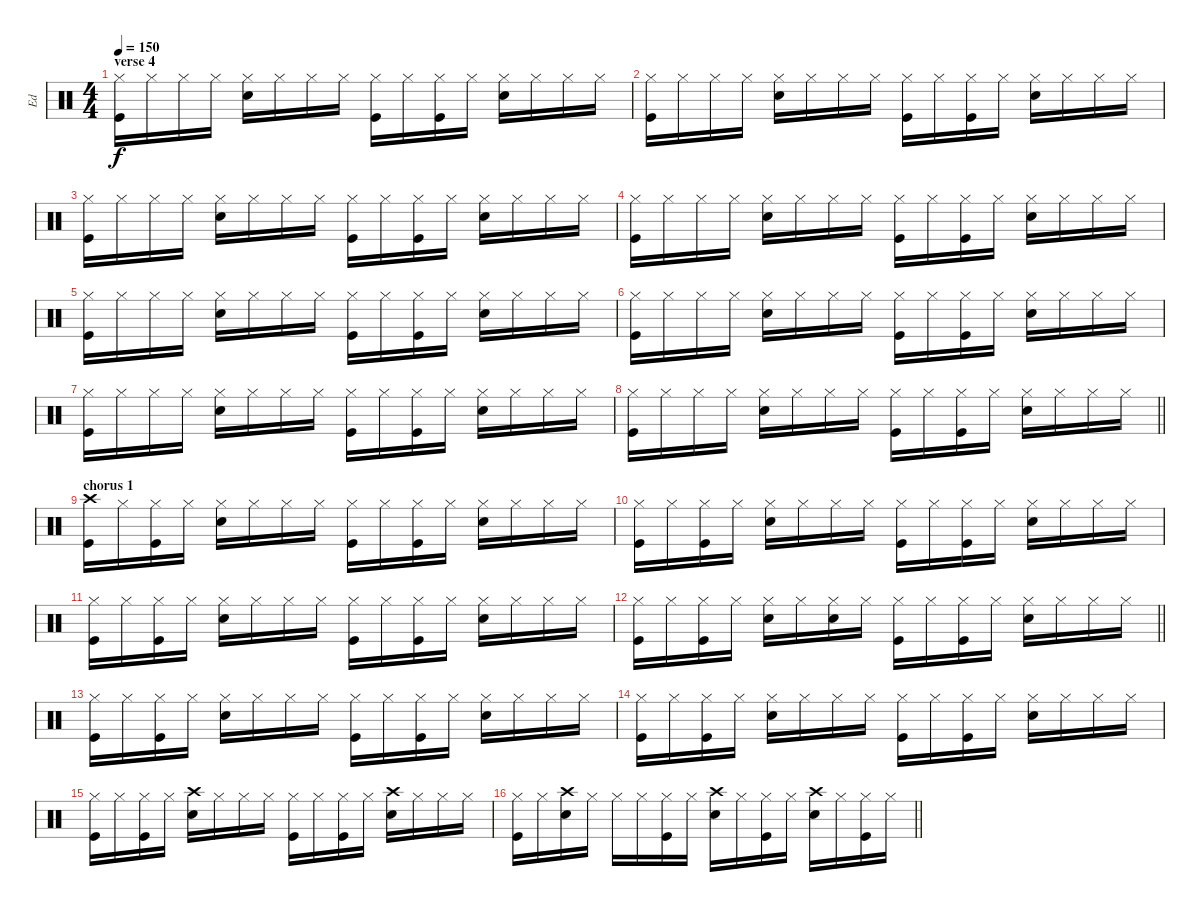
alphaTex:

\track ("Ed" "Ed") {instrument percussion}
\staff {score}
\articulation defaults
\ts (4 4)
\section ("" "verse 4")
\tempo 150
\clef neutral
\ks c
("Hi-Hat (closed)" "Kick (hit)").16{dy f} "Hi-Hat (closed)".16 "Hi-Hat (closed)".16 "Hi-Hat (closed)".16 ("Hi-Hat (closed)" "Electric Snare (hit)").16 "Hi-Hat (closed)".16 "Hi-Hat (closed)".16 "Hi-Hat (closed)".16 ("Hi-Hat (closed)" "Kick (hit)").16 "Hi-Hat (closed)".16 ("Hi-Hat (closed)" "Kick (hit)").16 "Hi-Hat (closed)".16 ("Hi-Hat (closed)" "Electric Snare (hit)").16 "Hi-Hat (closed)".16 "Hi-Hat (closed)".16 "Hi-Hat (closed)".16 |
("Hi-Hat (closed)" "Kick (hit)").16 "Hi-Hat (closed)".16 "Hi-Hat (closed)".16 "Hi-Hat (closed)".16 ("Hi-Hat (closed)" "Electric Snare (hit)").16 "Hi-Hat (closed)".16 "Hi-Hat (closed)".16 "Hi-Hat (closed)".16 ("Hi-Hat (closed)" "Kick (hit)").16 "Hi-Hat (closed)".16 ("Hi-Hat (closed)" "Kick (hit)").16 "Hi-Hat (closed)".16 ("Hi-Hat (closed)" "Electric Snare (hit)").16 "Hi-Hat (closed)".16 "Hi-Hat (closed)".16 "Hi-Hat (closed)".16 |
("Hi-Hat (closed)" "Kick (hit)").16 "Hi-Hat (closed)".16 "Hi-Hat (closed)".16 "Hi-Hat (closed)".16 ("Hi-Hat (closed)" "Electric Snare (hit)").16 "Hi-Hat (closed)".16 "Hi-Hat (closed)".16 "Hi-Hat (closed)".16 ("Hi-Hat (closed)" "Kick (hit)").16 "Hi-Hat (closed)".16 ("Hi-Hat (closed)" "Kick (hit)").16 "Hi-Hat (closed)".16 ("Hi-Hat (closed)" "Electric Snare (hit)").16 "Hi-Hat (closed)".16 "Hi-Hat (closed)".16 "Hi-Hat (closed)".16 |
("Hi-Hat (closed)" "Kick (hit)").16 "Hi-Hat (closed)".16 "Hi-Hat (closed)".16 "Hi-Hat (closed)".16 ("Hi-Hat (closed)" "Electric Snare (hit)").16 "Hi-Hat (closed)".16 "Hi-Hat (closed)".16 "Hi-Hat (closed)".16 ("Hi-Hat (closed)" "Kick (hit)").16 "Hi-Hat (closed)".16 ("Hi-Hat (closed)" "Kick (hit)").16 "Hi-Hat (closed)".16 ("Hi-Hat (closed)" "Electric Snare (hit)").16 "Hi-Hat (closed)".16 "Hi-Hat (closed)".16 "Hi-Hat (closed)".16 |
("Hi-Hat (closed)" "Kick (hit)").16 "Hi-Hat (closed)".16 "Hi-Hat (closed)".16 "Hi-Hat (closed)".16 ("Hi-Hat (closed)" "Electric Snare (hit)").16 "Hi-Hat (closed)".16 "Hi-Hat (closed)".16 "Hi-Hat (closed)".16 ("Hi-Hat (closed)" "Kick (hit)").16 "Hi-Hat (closed)".16 ("Hi-Hat (closed)" "Kick (hit)").16 "Hi-Hat (closed)".16 ("Hi-Hat (closed)" "Electric Snare (hit)").16 "Hi-Hat (closed)".16 "Hi-Hat (closed)".16 "Hi-Hat (closed)".16 |
("Hi-Hat (closed)" "Kick (hit)").16 "Hi-Hat (closed)".16 "Hi-Hat (closed)".16 "Hi-Hat (closed)".16 ("Hi-Hat (closed)" "Electric Snare (hit)").16 "Hi-Hat (closed)".16 "Hi-Hat (closed)".16 "Hi-Hat (closed)".16 ("Hi-Hat (closed)" "Kick (hit)").16 "Hi-Hat (closed)".16 ("Hi-Hat (closed)" "Kick (hit)").16 "Hi-Hat (closed)".16 ("Hi-Hat (closed)" "Electric Snare (hit)").16 "Hi-Hat (closed)".16 "Hi-Hat (closed)".16 "Hi-Hat (closed)".16 |
("Hi-Hat (closed)" "Kick (hit)").16 "Hi-Hat (closed)".16 "Hi-Hat (closed)".16 "Hi-Hat (closed)".16 ("Hi-Hat (closed)" "Electric Snare (hit)").16 "Hi-Hat (closed)".16 "Hi-Hat (closed)".16 "Hi-Hat (closed)".16 ("Hi-Hat (closed)" "Kick (hit)").16 "Hi-Hat (closed)".16 ("Hi-Hat (closed)" "Kick (hit)").16 "Hi-Hat (closed)".16 ("Hi-Hat (closed)" "Electric Snare (hit)").16 "Hi-Hat (closed)".16 "Hi-Hat (closed)".16 "Hi-Hat (closed)".16 |
\barLineRight lightlight
("Hi-Hat (closed)" "Kick (hit)").16 "Hi-Hat (closed)".16 "Hi-Hat (closed)".16 "Hi-Hat (closed)".16 ("Hi-Hat (closed)" "Electric Snare (hit)").16 "Hi-Hat (closed)".16 "Hi-Hat (closed)".16 "Hi-Hat (closed)".16 ("Hi-Hat (closed)" "Kick (hit)").16 "Hi-Hat (closed)".16 ("Hi-Hat (closed)" "Kick (hit)").16 "Hi-Hat (closed)".16 ("Hi-Hat (closed)" "Electric Snare (hit)").16 "Hi-Hat (closed)".16 "Hi-Hat (closed)".16 "Hi-Hat (closed)".16 |
\section ("" "chorus 1")
("Crash high (hit)" "Kick (hit)").16 "Hi-Hat (closed)".16 ("Hi-Hat (closed)" "Kick (hit)").16 "Hi-Hat (closed)".16 ("Hi-Hat (closed)" "Electric Snare (hit)").16 "Hi-Hat (closed)".16 "Hi-Hat (closed)".16 "Hi-Hat (closed)".16 ("Hi-Hat (closed)" "Kick (hit)").16 "Hi-Hat (closed)".16 ("Hi-Hat (closed)" "Kick (hit)").16 "Hi-Hat (closed)".16 ("Hi-Hat (closed)" "Electric Snare (hit)").16 "Hi-Hat (closed)".16 "Hi-Hat (closed)".16 "Hi-Hat (closed)".16 |
("Hi-Hat (closed)" "Kick (hit)").16 "Hi-Hat (closed)".16 ("Hi-Hat (closed)" "Kick (hit)").16 "Hi-Hat (closed)".16 ("Hi-Hat (closed)" "Electric Snare (hit)").16 "Hi-Hat (closed)".16 "Hi-Hat (closed)".16 "Hi-Hat (closed)".16 ("Hi-Hat (closed)" "Kick (hit)").16 "Hi-Hat (closed)".16 ("Hi-Hat (closed)" "Kick (hit)").16 "Hi-Hat (closed)".16 ("Hi-Hat (closed)" "Electric Snare (hit)").16 "Hi-Hat (closed)".16 "Hi-Hat (closed)".16 "Hi-Hat (closed)".16 |
("Hi-Hat (closed)" "Kick (hit)").16 "Hi-Hat (closed)".16 ("Hi-Hat (closed)" "Kick (hit)").16 "Hi-Hat (closed)".16 ("Hi-Hat (closed)" "Electric Snare (hit)").16 "Hi-Hat (closed)".16 "Hi-Hat (closed)".16 "Hi-Hat (closed)".16 ("Hi-Hat (closed)" "Kick (hit)").16 "Hi-Hat (closed)".16 ("Hi-Hat (closed)" "Kick (hit)").16 "Hi-Hat (closed)".16 ("Hi-Hat (closed)" "Electric Snare (hit)").16 "Hi-Hat (closed)".16 "Hi-Hat (closed)".16 "Hi-Hat (closed)".16 |
\barLineRight lightlight
("Hi-Hat (closed)" "Kick (hit)").16 "Hi-Hat (closed)".16 ("Hi-Hat (closed)" "Kick (hit)").16 "Hi-Hat (closed)".16 ("Hi-Hat (closed)" "Electric Snare (hit)").16 "Hi-Hat (closed)".16 ("Hi-Hat (closed)" "Electric Snare (hit)").16 "Hi-Hat (closed)".16 ("Hi-Hat (closed)" "Kick (hit)").16 "Hi-Hat (closed)".16 ("Hi-Hat (closed)" "Kick (hit)").16 "Hi-Hat (closed)".16 ("Hi-Hat (closed)" "Electric Snare (hit)").16 "Hi-Hat (closed)".16 "Hi-Hat (closed)".16 "Hi-Hat (closed)".16 |
("Hi-Hat (closed)" "Kick (hit)").16 "Hi-Hat (closed)".16 ("Hi-Hat (closed)" "Kick (hit)").16 "Hi-Hat (closed)".16 ("Hi-Hat (closed)" "Electric Snare (hit)").16 "Hi-Hat (closed)".16 "Hi-Hat (closed)".16 "Hi-Hat (closed)".16 ("Hi-Hat (closed)" "Kick (hit)").16 "Hi-Hat (closed)".16 ("Hi-Hat (closed)" "Kick (hit)").16 "Hi-Hat (closed)".16 ("Hi-Hat (closed)" "Electric Snare (hit)").16 "Hi-Hat (closed)".16 "Hi-Hat (closed)".16 "Hi-Hat (closed)".16 |
("Hi-Hat (closed)" "Kick (hit)").16 "Hi-Hat (closed)".16 ("Hi-Hat (closed)" "Kick (hit)").16 "Hi-Hat (closed)".16 ("Hi-Hat (closed)" "Electric Snare (hit)").16 "Hi-Hat (closed)".16 "Hi-Hat (closed)".16 "Hi-Hat (closed)".16 ("Hi-Hat (closed)" "Kick (hit)").16 "Hi-Hat (closed)".16 ("Hi-Hat (closed)" "Kick (hit)").16 "Hi-Hat (closed)".16 ("Hi-Hat (closed)" "Electric Snare (hit)").16 "Hi-Hat (closed)".16 "Hi-Hat (closed)".16 "Hi-Hat (closed)".16 |
("Hi-Hat (closed)" "Kick (hit)").16 "Hi-Hat (closed)".16 ("Hi-Hat (closed)" "Kick (hit)").16 "Hi-Hat (closed)".16 ("Crash high (hit)" "Electric Snare (hit)").16 "Hi-Hat (closed)".16 "Hi-Hat (closed)".16 "Hi-Hat (closed)".16 ("Hi-Hat (closed)" "Kick (hit)").16 "Hi-Hat (closed)".16 ("Hi-Hat (closed)" "Kick (hit)").16 "Hi-Hat (closed)".16 ("Crash high (hit)" "Electric Snare (hit)").16 "Hi-Hat (closed)".16 "Hi-Hat (closed)".16 "Hi-Hat (closed)".16 |
\barLineRight lightlight
("Hi-Hat (closed)" "Kick (hit)").16 "Hi-Hat (closed)".16 ("Crash high (hit)" "Electric Snare (hit)").16 "Hi-Hat (closed)".16 "Hi-Hat (closed)".16 "Hi-Hat (closed)".16 ("Hi-Hat (closed)" "Kick (hit)").16 "Hi-Hat (closed)".16 ("Crash high (hit)" "Electric Snare (hit)").16 "Hi-Hat (closed)".16 ("Hi-Hat (closed)" "Kick (hit)").16 "Hi-Hat (closed)".16 ("Crash high (hit)" "Electric Snare (hit)").16 "Hi-Hat (closed)".16 ("Hi-Hat (closed)" "Kick (hit)").16 "Hi-Hat (closed)".16
